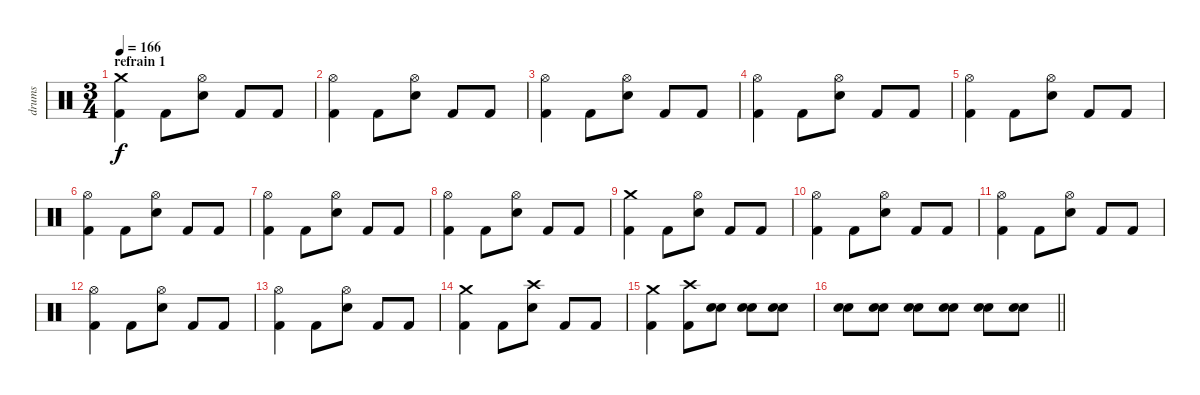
\track ("drums" "drums") {instrument percussion}
\staff {score}
\articulation defaults
\ts (3 4)
\section ("" "refrain 1")
\tempo 166
\clef neutral
\ks c
("Crash medium (hit)" "Kick (hit) 2").4{dy f} "Kick (hit) 2".8 ("Hi-Hat (open)" "Electric Snare (hit)").8 "Kick (hit) 2".8 "Kick (hit) 2".8 |
("Hi-Hat (open)" "Kick (hit) 2").4 "Kick (hit) 2".8 ("Hi-Hat (open)" "Electric Snare (hit)").8 "Kick (hit) 2".8 "Kick (hit) 2".8 |
("Hi-Hat (open)" "Kick (hit) 2").4 "Kick (hit) 2".8 ("Hi-Hat (open)" "Electric Snare (hit)").8 "Kick (hit) 2".8 "Kick (hit) 2".8 |
("Hi-Hat (open)" "Kick (hit) 2").4 "Kick (hit) 2".8 ("Hi-Hat (open)" "Electric Snare (hit)").8 "Kick (hit) 2".8 "Kick (hit) 2".8 |
("Hi-Hat (open)" "Kick (hit) 2").4 "Kick (hit) 2".8 ("Hi-Hat (open)" "Electric Snare (hit)").8 "Kick (hit) 2".8 "Kick (hit) 2".8 |
("Hi-Hat (open)" "Kick (hit) 2").4 "Kick (hit) 2".8 ("Hi-Hat (open)" "Electric Snare (hit)").8 "Kick (hit) 2".8 "Kick (hit) 2".8 |
("Hi-Hat (open)" "Kick (hit) 2").4 "Kick (hit) 2".8 ("Hi-Hat (open)" "Electric Snare (hit)").8 "Kick (hit) 2".8 "Kick (hit) 2".8 |
("Hi-Hat (open)" "Kick (hit) 2").4 "Kick (hit) 2".8 ("Hi-Hat (open)" "Electric Snare (hit)").8 "Kick (hit) 2".8 "Kick (hit) 2".8 |
("Crash medium (hit)" "Kick (hit) 2").4 "Kick (hit) 2".8 ("Hi-Hat (open)" "Electric Snare (hit)").8 "Kick (hit) 2".8 "Kick (hit) 2".8 |
("Hi-Hat (open)" "Kick (hit) 2").4 "Kick (hit) 2".8 ("Hi-Hat (open)" "Electric Snare (hit)").8 "Kick (hit) 2".8 "Kick (hit) 2".8 |
("Hi-Hat (open)" "Kick (hit) 2").4 "Kick (hit) 2".8 ("Hi-Hat (open)" "Electric Snare (hit)").8 "Kick (hit) 2".8 "Kick (hit) 2".8 |
("Hi-Hat (open)" "Kick (hit) 2").4 "Kick (hit) 2".8 ("Hi-Hat (open)" "Electric Snare (hit)").8 "Kick (hit) 2".8 "Kick (hit) 2".8 |
("Hi-Hat (open)" "Kick (hit) 2").4 "Kick (hit) 2".8 ("Hi-Hat (open)" "Electric Snare (hit)").8 "Kick (hit) 2".8 "Kick (hit) 2".8 |
("Crash medium (hit)" "Kick (hit) 2").4 "Kick (hit) 2".8 ("Crash high (hit)" "Electric Snare (hit)").8 "Kick (hit) 2".8 "Kick (hit) 2".8 |
("Crash medium (hit)" "Kick (hit) 2").4 ("Crash high (hit)" "Kick (hit) 2").8 ("Snare (hit) 2" "Electric Snare (hit)").8 ("Snare (hit) 2" "Electric Snare (hit)").8 ("Snare (hit) 2" "Electric Snare (hit)").8 |
\barLineRight lightlight
("Snare (hit) 2" "Electric Snare (hit)").8 ("Snare (hit) 2" "Electric Snare (hit)").8 ("Snare (hit) 2" "Electric Snare (hit)").8 ("Snare (hit) 2" "Electric Snare (hit)").8 ("Snare (hit) 2" "Electric Snare (hit)").8 ("Snare (hit) 2" "Electric Snare (hit)").8
